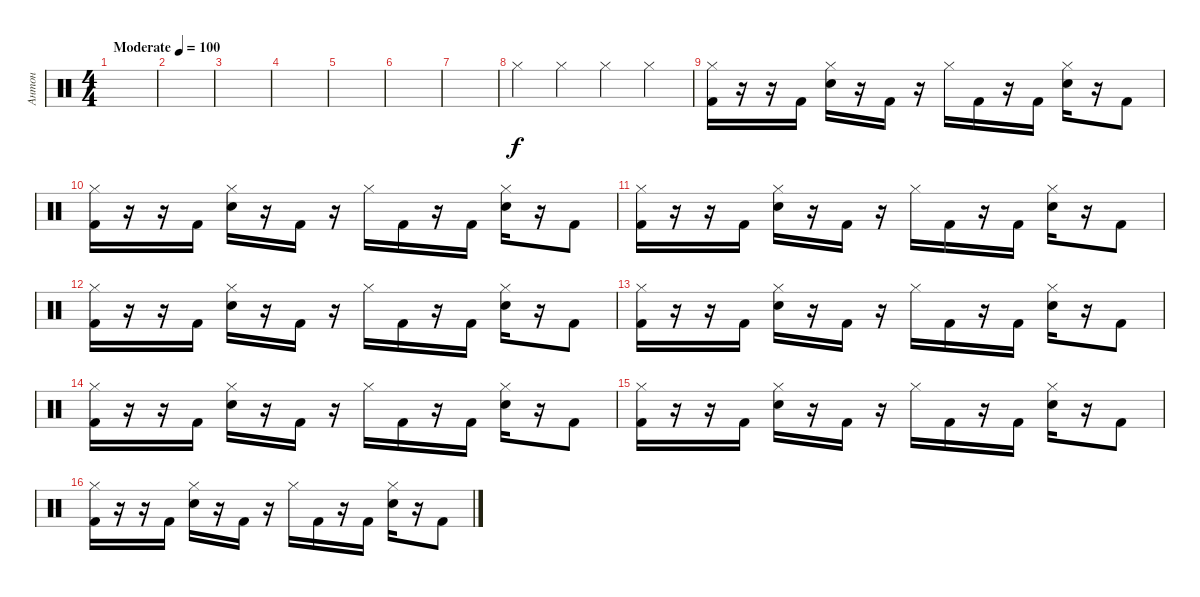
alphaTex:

\track ("Антон" "Антон") {instrument percussion}
\staff {score}
\articulation defaults
\ts (4 4)
\tempo (100 "Moderate")
\clef neutral
\ks c
|
|
|
|
|
|
|
"Hi-Hat (closed)".4 "Hi-Hat (closed)".4 "Hi-Hat (closed)".4 "Hi-Hat (closed)".4 |
("Hi-Hat (closed)" "Kick (hit) 2").16 r.16 r.16 "Kick (hit) 2".16 ("Hi-Hat (closed)" "Electric Snare (hit)").16 r.16 "Kick (hit) 2".16 r.16 "Hi-Hat (closed)".16 "Kick (hit) 2".16 r.16 "Kick (hit) 2".16 ("Hi-Hat (closed)" "Electric Snare (hit)").16 r.16 "Kick (hit) 2".8 |
("Hi-Hat (closed)" "Kick (hit) 2").16 r.16 r.16 "Kick (hit) 2".16 ("Hi-Hat (closed)" "Electric Snare (hit)").16 r.16 "Kick (hit) 2".16 r.16 "Hi-Hat (closed)".16 "Kick (hit) 2".16 r.16 "Kick (hit) 2".16 ("Hi-Hat (closed)" "Electric Snare (hit)").16 r.16 "Kick (hit) 2".8 |
("Hi-Hat (closed)" "Kick (hit) 2").16 r.16 r.16 "Kick (hit) 2".16 ("Hi-Hat (closed)" "Electric Snare (hit)").16 r.16 "Kick (hit) 2".16 r.16 "Hi-Hat (closed)".16 "Kick (hit) 2".16 r.16 "Kick (hit) 2".16 ("Hi-Hat (closed)" "Electric Snare (hit)").16 r.16 "Kick (hit) 2".8 |
("Hi-Hat (closed)" "Kick (hit) 2").16 r.16 r.16 "Kick (hit) 2".16 ("Hi-Hat (closed)" "Electric Snare (hit)").16 r.16 "Kick (hit) 2".16 r.16 "Hi-Hat (closed)".16 "Kick (hit) 2".16 r.16 "Kick (hit) 2".16 ("Hi-Hat (closed)" "Electric Snare (hit)").16 r.16 "Kick (hit) 2".8 |
("Hi-Hat (closed)" "Kick (hit) 2").16 r.16 r.16 "Kick (hit) 2".16 ("Hi-Hat (closed)" "Electric Snare (hit)").16 r.16 "Kick (hit) 2".16 r.16 "Hi-Hat (closed)".16 "Kick (hit) 2".16 r.16 "Kick (hit) 2".16 ("Hi-Hat (closed)" "Electric Snare (hit)").16 r.16 "Kick (hit) 2".8 |
("Hi-Hat (closed)" "Kick (hit) 2").16 r.16 r.16 "Kick (hit) 2".16 ("Hi-Hat (closed)" "Electric Snare (hit)").16 r.16 "Kick (hit) 2".16 r.16 "Hi-Hat (closed)".16 "Kick (hit) 2".16 r.16 "Kick (hit) 2".16 ("Hi-Hat (closed)" "Electric Snare (hit)").16 r.16 "Kick (hit) 2".8 |
("Hi-Hat (closed)" "Kick (hit) 2").16 r.16 r.16 "Kick (hit) 2".16 ("Hi-Hat (closed)" "Electric Snare (hit)").16 r.16 "Kick (hit) 2".16 r.16 "Hi-Hat (closed)".16 "Kick (hit) 2".16 r.16 "Kick (hit) 2".16 ("Hi-Hat (closed)" "Electric Snare (hit)").16 r.16 "Kick (hit) 2".8 |
("Hi-Hat (closed)" "Kick (hit) 2").16 r.16 r.16 "Kick (hit) 2".16 ("Hi-Hat (closed)" "Electric Snare (hit)").16 r.16 "Kick (hit) 2".16 r.16 "Hi-Hat (closed)".16 "Kick (hit) 2".16 r.16 "Kick (hit) 2".16 ("Hi-Hat (closed)" "Electric Snare (hit)").16 r.16 "Kick (hit) 2".8
